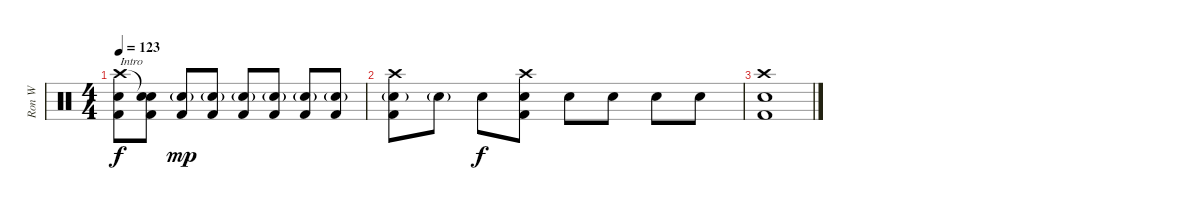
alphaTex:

\track ("Ron W" "Ron W") {instrument percussion}
\staff {score}
\articulation defaults
\ts (4 4)
\tempo 123
\clef neutral
\ks c
("Crash high (hit)" "Electric Snare (hit)" "Kick (hit) 2").8{txt "Intro" dy f} ("Snare (hit)"{t} "Electric Snare (hit)" "Kick (hit) 2").8 ("Electric Snare (hit)"{g} "Kick (hit) 2").8{dy mp} ("Electric Snare (hit)"{g} "Kick (hit) 2").8 ("Electric Snare (hit)"{g} "Kick (hit) 2").8 ("Electric Snare (hit)"{g} "Kick (hit) 2").8 ("Electric Snare (hit)"{g} "Kick (hit) 2").8 ("Electric Snare (hit)"{g} "Kick (hit) 2").8 |
("Crash high (hit)" "Electric Snare (hit)"{g} "Kick (hit) 2").8 "Electric Snare (hit)"{g}.8 "Electric Snare (hit)".8{dy f} ("Crash high (hit)" "Electric Snare (hit)" "Kick (hit) 2").8 "Electric Snare (hit)".8 "Electric Snare (hit)".8 "Electric Snare (hit)".8 "Electric Snare (hit)".8 |
("Crash high (hit)" "Electric Snare (hit)" "Kick (hit) 2").1
